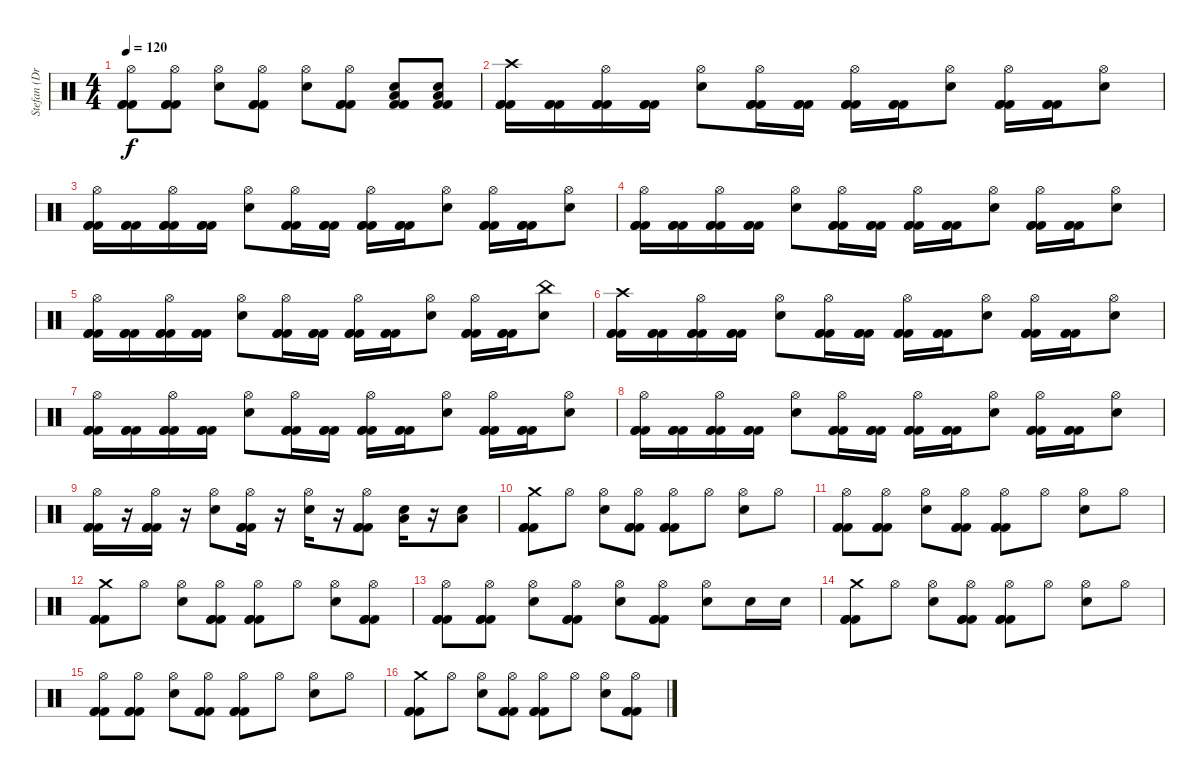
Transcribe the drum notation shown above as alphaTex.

\track ("Stefan (Drums)" "Stefan (Dr") {instrument percussion}
\staff {score}
\articulation defaults
\ts (4 4)
\tempo 120
\clef neutral
\ks c
("Hi-Hat (open)" "Kick (hit) 2" "Kick (hit) 2" "Kick (hit) 2").8{dy f} ("Hi-Hat (open)" "Kick (hit) 2" "Kick (hit) 2" "Kick (hit) 2").8 ("Hi-Hat (open)" "Snare (hit) 2").8 ("Hi-Hat (open)" "Kick (hit) 2" "Kick (hit) 2" "Kick (hit) 2").8 ("Hi-Hat (open)" "Snare (hit) 2").8 ("Hi-Hat (open)" "Kick (hit) 2" "Kick (hit) 2" "Kick (hit) 2").8 ("Snare (hit) 2" "Low Tom (hit)" "Kick (hit) 2" "Kick (hit) 2").8 ("Snare (hit) 2" "Low Tom (hit)" "Kick (hit) 2" "Kick (hit) 2").8 |
("Crash high (hit)" "Kick (hit) 2" "Kick (hit) 2" "Kick (hit) 2").16 ("Kick (hit) 2" "Kick (hit) 2" "Kick (hit) 2").16 ("Hi-Hat (open)" "Kick (hit) 2" "Kick (hit) 2" "Kick (hit) 2").16 ("Kick (hit) 2" "Kick (hit) 2" "Kick (hit) 2").16 ("Hi-Hat (open)" "Snare (hit) 2").8 ("Hi-Hat (open)" "Kick (hit) 2" "Kick (hit) 2" "Kick (hit) 2").16 ("Kick (hit) 2" "Kick (hit) 2" "Kick (hit) 2").16 ("Hi-Hat (open)" "Kick (hit) 2" "Kick (hit) 2" "Kick (hit) 2").16 ("Kick (hit) 2" "Kick (hit) 2" "Kick (hit) 2").16 ("Hi-Hat (open)" "Snare (hit) 2").8 ("Hi-Hat (open)" "Kick (hit) 2" "Kick (hit) 2" "Kick (hit) 2").16 ("Kick (hit) 2" "Kick (hit) 2" "Kick (hit) 2").16 ("Hi-Hat (open)" "Snare (hit) 2").8 |
("Hi-Hat (open)" "Kick (hit) 2" "Kick (hit) 2" "Kick (hit) 2").16 ("Kick (hit) 2" "Kick (hit) 2" "Kick (hit) 2").16 ("Hi-Hat (open)" "Kick (hit) 2" "Kick (hit) 2" "Kick (hit) 2").16 ("Kick (hit) 2" "Kick (hit) 2" "Kick (hit) 2").16 ("Hi-Hat (open)" "Snare (hit) 2").8 ("Hi-Hat (open)" "Kick (hit) 2" "Kick (hit) 2" "Kick (hit) 2").16 ("Kick (hit) 2" "Kick (hit) 2" "Kick (hit) 2").16 ("Hi-Hat (open)" "Kick (hit) 2" "Kick (hit) 2" "Kick (hit) 2").16 ("Kick (hit) 2" "Kick (hit) 2" "Kick (hit) 2").16 ("Hi-Hat (open)" "Snare (hit) 2").8 ("Hi-Hat (open)" "Kick (hit) 2" "Kick (hit) 2" "Kick (hit) 2").16 ("Kick (hit) 2" "Kick (hit) 2" "Kick (hit) 2").16 ("Hi-Hat (open)" "Snare (hit) 2").8 |
("Hi-Hat (open)" "Kick (hit) 2" "Kick (hit) 2" "Kick (hit) 2").16 ("Kick (hit) 2" "Kick (hit) 2" "Kick (hit) 2").16 ("Hi-Hat (open)" "Kick (hit) 2" "Kick (hit) 2" "Kick (hit) 2").16 ("Kick (hit) 2" "Kick (hit) 2" "Kick (hit) 2").16 ("Hi-Hat (open)" "Snare (hit) 2").8 ("Hi-Hat (open)" "Kick (hit) 2" "Kick (hit) 2" "Kick (hit) 2").16 ("Kick (hit) 2" "Kick (hit) 2" "Kick (hit) 2").16 ("Hi-Hat (open)" "Kick (hit) 2" "Kick (hit) 2" "Kick (hit) 2").16 ("Kick (hit) 2" "Kick (hit) 2" "Kick (hit) 2").16 ("Hi-Hat (open)" "Snare (hit) 2").8 ("Hi-Hat (open)" "Kick (hit) 2" "Kick (hit) 2" "Kick (hit) 2").16 ("Kick (hit) 2" "Kick (hit) 2" "Kick (hit) 2").16 ("Hi-Hat (open)" "Snare (hit) 2").8 |
("Hi-Hat (open)" "Kick (hit) 2" "Kick (hit) 2" "Kick (hit) 2").16 ("Kick (hit) 2" "Kick (hit) 2" "Kick (hit) 2").16 ("Hi-Hat (open)" "Kick (hit) 2" "Kick (hit) 2" "Kick (hit) 2").16 ("Kick (hit) 2" "Kick (hit) 2" "Kick (hit) 2").16 ("Hi-Hat (open)" "Snare (hit) 2").8 ("Hi-Hat (open)" "Kick (hit) 2" "Kick (hit) 2" "Kick (hit) 2").16 ("Kick (hit) 2" "Kick (hit) 2" "Kick (hit) 2").16 ("Hi-Hat (open)" "Kick (hit) 2" "Kick (hit) 2" "Kick (hit) 2").16 ("Kick (hit) 2" "Kick (hit) 2" "Kick (hit) 2").16 ("Hi-Hat (open)" "Snare (hit) 2").8 ("Hi-Hat (open)" "Kick (hit) 2" "Kick (hit) 2" "Kick (hit) 2").16 ("Kick (hit) 2" "Kick (hit) 2" "Kick (hit) 2").16 ("China (hit)" "Snare (hit) 2").8 |
("Crash high (hit)" "Kick (hit) 2" "Kick (hit) 2" "Kick (hit) 2").16 ("Kick (hit) 2" "Kick (hit) 2" "Kick (hit) 2").16 ("Hi-Hat (open)" "Kick (hit) 2" "Kick (hit) 2" "Kick (hit) 2").16 ("Kick (hit) 2" "Kick (hit) 2" "Kick (hit) 2").16 ("Hi-Hat (open)" "Snare (hit) 2").8 ("Hi-Hat (open)" "Kick (hit) 2" "Kick (hit) 2" "Kick (hit) 2").16 ("Kick (hit) 2" "Kick (hit) 2" "Kick (hit) 2").16 ("Hi-Hat (open)" "Kick (hit) 2" "Kick (hit) 2" "Kick (hit) 2").16 ("Kick (hit) 2" "Kick (hit) 2" "Kick (hit) 2").16 ("Hi-Hat (open)" "Snare (hit) 2").8 ("Hi-Hat (open)" "Kick (hit) 2" "Kick (hit) 2" "Kick (hit) 2").16 ("Kick (hit) 2" "Kick (hit) 2" "Kick (hit) 2").16 ("Hi-Hat (open)" "Snare (hit) 2").8 |
("Hi-Hat (open)" "Kick (hit) 2" "Kick (hit) 2" "Kick (hit) 2").16 ("Kick (hit) 2" "Kick (hit) 2" "Kick (hit) 2").16 ("Hi-Hat (open)" "Kick (hit) 2" "Kick (hit) 2" "Kick (hit) 2").16 ("Kick (hit) 2" "Kick (hit) 2" "Kick (hit) 2").16 ("Hi-Hat (open)" "Snare (hit) 2").8 ("Hi-Hat (open)" "Kick (hit) 2" "Kick (hit) 2" "Kick (hit) 2").16 ("Kick (hit) 2" "Kick (hit) 2" "Kick (hit) 2").16 ("Hi-Hat (open)" "Kick (hit) 2" "Kick (hit) 2" "Kick (hit) 2").16 ("Kick (hit) 2" "Kick (hit) 2" "Kick (hit) 2").16 ("Hi-Hat (open)" "Snare (hit) 2").8 ("Hi-Hat (open)" "Kick (hit) 2" "Kick (hit) 2" "Kick (hit) 2").16 ("Kick (hit) 2" "Kick (hit) 2" "Kick (hit) 2").16 ("Hi-Hat (open)" "Snare (hit) 2").8 |
("Hi-Hat (open)" "Kick (hit) 2" "Kick (hit) 2" "Kick (hit) 2").16 ("Kick (hit) 2" "Kick (hit) 2" "Kick (hit) 2").16 ("Hi-Hat (open)" "Kick (hit) 2" "Kick (hit) 2" "Kick (hit) 2").16 ("Kick (hit) 2" "Kick (hit) 2" "Kick (hit) 2").16 ("Hi-Hat (open)" "Snare (hit) 2").8 ("Hi-Hat (open)" "Kick (hit) 2" "Kick (hit) 2" "Kick (hit) 2").16 ("Kick (hit) 2" "Kick (hit) 2" "Kick (hit) 2").16 ("Hi-Hat (open)" "Kick (hit) 2" "Kick (hit) 2" "Kick (hit) 2").16 ("Kick (hit) 2" "Kick (hit) 2" "Kick (hit) 2").16 ("Hi-Hat (open)" "Snare (hit) 2").8 ("Hi-Hat (open)" "Kick (hit) 2" "Kick (hit) 2" "Kick (hit) 2").16 ("Kick (hit) 2" "Kick (hit) 2" "Kick (hit) 2").16 ("Hi-Hat (open)" "Snare (hit) 2").8 |
("Hi-Hat (open)" "Kick (hit) 2" "Kick (hit) 2" "Kick (hit) 2").16 r.16 ("Hi-Hat (open)" "Kick (hit) 2" "Kick (hit) 2" "Kick (hit) 2").16 r.16 ("Hi-Hat (open)" "Snare (hit) 2").8 ("Hi-Hat (open)" "Kick (hit) 2" "Kick (hit) 2" "Kick (hit) 2").16 r.16 ("Hi-Hat (open)" "Snare (hit) 2").16 r.16 ("Hi-Hat (open)" "Kick (hit) 2" "Kick (hit) 2" "Kick (hit) 2").8 ("Snare (hit) 2" "Low Tom (hit)").16 r.16 ("Snare (hit) 2" "Low Tom (hit)").8 |
("Crash medium (hit)" "Kick (hit) 2" "Kick (hit) 2" "Kick (hit) 2").8 "Hi-Hat (open)".8 ("Hi-Hat (open)" "Snare (hit) 2").8 ("Hi-Hat (open)" "Kick (hit) 2" "Kick (hit) 2" "Kick (hit) 2").8 ("Hi-Hat (open)" "Kick (hit) 2" "Kick (hit) 2" "Kick (hit) 2").8 "Hi-Hat (open)".8 ("Hi-Hat (open)" "Snare (hit) 2").8 "Hi-Hat (open)".8 |
("Hi-Hat (open)" "Kick (hit) 2" "Kick (hit) 2" "Kick (hit) 2").8 ("Hi-Hat (open)" "Kick (hit) 2" "Kick (hit) 2" "Kick (hit) 2").8 ("Hi-Hat (open)" "Snare (hit) 2").8 ("Hi-Hat (open)" "Kick (hit) 2" "Kick (hit) 2" "Kick (hit) 2").8 ("Hi-Hat (open)" "Kick (hit) 2" "Kick (hit) 2" "Kick (hit) 2").8 "Hi-Hat (open)".8 ("Hi-Hat (open)" "Snare (hit) 2").8 "Hi-Hat (open)".8 |
("Crash medium (hit)" "Kick (hit) 2" "Kick (hit) 2" "Kick (hit) 2").8 "Hi-Hat (open)".8 ("Hi-Hat (open)" "Snare (hit) 2").8 ("Hi-Hat (open)" "Kick (hit) 2" "Kick (hit) 2" "Kick (hit) 2").8 ("Hi-Hat (open)" "Kick (hit) 2" "Kick (hit) 2" "Kick (hit) 2").8 "Hi-Hat (open)".8 ("Hi-Hat (open)" "Snare (hit) 2").8 ("Hi-Hat (open)" "Kick (hit) 2" "Kick (hit) 2" "Kick (hit) 2").8 |
("Hi-Hat (open)" "Kick (hit) 2" "Kick (hit) 2" "Kick (hit) 2").8 ("Hi-Hat (open)" "Kick (hit) 2" "Kick (hit) 2" "Kick (hit) 2").8 ("Hi-Hat (open)" "Snare (hit) 2").8 ("Hi-Hat (open)" "Kick (hit) 2" "Kick (hit) 2" "Kick (hit) 2").8 ("Hi-Hat (open)" "Snare (hit) 2").8 ("Hi-Hat (open)" "Kick (hit) 2" "Kick (hit) 2" "Kick (hit) 2").8 ("Hi-Hat (open)" "Snare (hit) 2").8 "Snare (hit) 2".16 "Snare (hit) 2".16 |
("Crash medium (hit)" "Kick (hit) 2" "Kick (hit) 2" "Kick (hit) 2").8 "Hi-Hat (open)".8 ("Hi-Hat (open)" "Snare (hit) 2").8 ("Hi-Hat (open)" "Kick (hit) 2" "Kick (hit) 2" "Kick (hit) 2").8 ("Hi-Hat (open)" "Kick (hit) 2" "Kick (hit) 2" "Kick (hit) 2").8 "Hi-Hat (open)".8 ("Hi-Hat (open)" "Snare (hit) 2").8 "Hi-Hat (open)".8 |
("Hi-Hat (open)" "Kick (hit) 2" "Kick (hit) 2" "Kick (hit) 2").8 ("Hi-Hat (open)" "Kick (hit) 2" "Kick (hit) 2" "Kick (hit) 2").8 ("Hi-Hat (open)" "Snare (hit) 2").8 ("Hi-Hat (open)" "Kick (hit) 2" "Kick (hit) 2" "Kick (hit) 2").8 ("Hi-Hat (open)" "Kick (hit) 2" "Kick (hit) 2" "Kick (hit) 2").8 "Hi-Hat (open)".8 ("Hi-Hat (open)" "Snare (hit) 2").8 "Hi-Hat (open)".8 |
("Crash medium (hit)" "Kick (hit) 2" "Kick (hit) 2" "Kick (hit) 2").8 "Hi-Hat (open)".8 ("Hi-Hat (open)" "Snare (hit) 2").8 ("Hi-Hat (open)" "Kick (hit) 2" "Kick (hit) 2" "Kick (hit) 2").8 ("Hi-Hat (open)" "Kick (hit) 2" "Kick (hit) 2" "Kick (hit) 2").8 "Hi-Hat (open)".8 ("Hi-Hat (open)" "Snare (hit) 2").8 ("Hi-Hat (open)" "Kick (hit) 2" "Kick (hit) 2" "Kick (hit) 2").8
